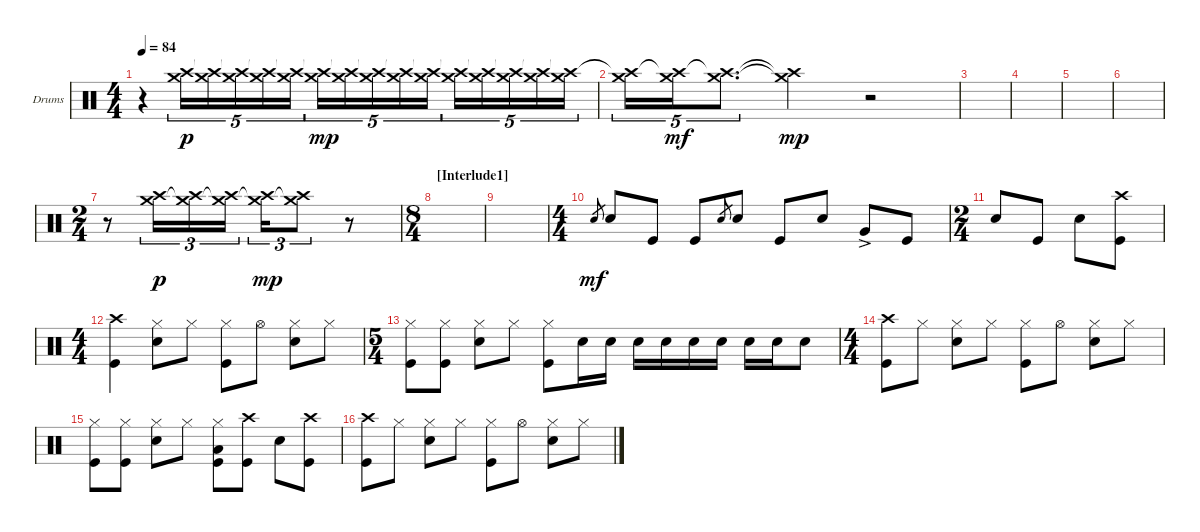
\defaultSystemsLayout 4
\bracketExtendMode groupsimilarinstruments
\firstSystemTrackNameOrientation horizontal
\otherSystemsTrackNameOrientation horizontal
\track ("Drumkit" "Drums") {instrument percussion}
\staff {score}
\articulation defaults
\ts (4 4)
\tempo 84
\clef neutral
\ks aminor
r.4{dy mp} ("Crash medium (hit)" "Crash high (hit)").16{tu (5 4) dy p} ("Crash medium (hit)" "Crash high (hit)"{t}).16{tu (5 4)} ("Crash medium (hit)" "Crash high (hit)"{t}).16{tu (5 4)} ("Crash medium (hit)" "Crash high (hit)"{t}).16{tu (5 4)} ("Crash medium (hit)" "Crash high (hit)"{t}).16{tu (5 4)} ("Crash medium (hit)" "Crash high (hit)"{t}).16{tu (5 4) dy mp} ("Crash medium (hit)" "Crash high (hit)"{t}).16{tu (5 4)} ("Crash medium (hit)" "Crash high (hit)"{t}).16{tu (5 4)} ("Crash medium (hit)" "Crash high (hit)"{t}).16{tu (5 4)} ("Crash medium (hit)" "Crash high (hit)"{t}).16{tu (5 4)} ("Crash medium (hit)" "Crash high (hit)"{t}).16{tu (5 4)} ("Crash medium (hit)" "Crash high (hit)"{t}).16{tu (5 4)} ("Crash medium (hit)" "Crash high (hit)"{t}).16{tu (5 4)} ("Crash medium (hit)" "Crash high (hit)"{t}).16{tu (5 4)} ("Crash medium (hit)" "Crash high (hit)"{t}).16{tu (5 4)} |
("Crash medium (hit)" "Crash high (hit)"{t}).16{tu (5 4)} ("Crash medium (hit)" "Crash high (hit)"{t}).16{tu (5 4) dy mf} ("Crash medium (hit)" "Crash high (hit)"{t}).8{d tu (5 4)} ("Crash medium (hit)"{t} "Crash high (hit)"{t}).4{dy mp} r.2 |
|
|
|
|
\ts (2 4)
r.8 ("Crash high (hit)" "Crash medium (hit)").16{tu (3 2) dy p} ("Crash high (hit)" "Crash medium (hit)"{t}).16{tu (3 2)} ("Crash high (hit)" "Crash medium (hit)"{t}).16{tu (3 2)} ("Crash high (hit)" "Crash medium (hit)"{t}).16{tu (3 2) dy mp} ("Crash high (hit)" "Crash medium (hit)"{t}).8{tu (3 2)} r.8 |
\ts (8 4)
\section ("" "[Interlude1]")
|
|
\ts (4 4)
"Snare (hit) 2".8{gr dy mf} "Snare (hit) 2".8 "Kick (hit)".8 "Kick (hit)".8 "Snare (hit) 2".8{gr} "Snare (hit) 2".8 "Kick (hit)".8 "Snare (hit) 2".8 "Very Low Tom (hit)"{ac}.8 "Kick (hit)".8 |
\ts (2 4)
"Snare (hit) 2".8 "Kick (hit)".8 "Snare (hit) 2".8 ("Kick (hit)" "Crash high (hit)").8 |
\ts (4 4)
("Kick (hit)" "Crash high (hit)").4 ("Hi-Hat (closed)" "Snare (hit) 2").8 "Hi-Hat (closed)".8 ("Hi-Hat (closed)" "Kick (hit)").8 "Hi-Hat (open)".8 ("Hi-Hat (closed)" "Snare (hit) 2").8 "Hi-Hat (closed)".8 |
\ts (5 4)
("Hi-Hat (closed)" "Kick (hit)").8 ("Hi-Hat (closed)" "Kick (hit)").8 ("Hi-Hat (closed)" "Snare (hit) 2").8 "Hi-Hat (closed)".8 ("Hi-Hat (closed)" "Kick (hit)").8 "Snare (hit) 2".16 "Snare (hit) 2".16 "Snare (hit) 2".16 "Snare (hit) 2".16 "Snare (hit) 2".16 "Snare (hit) 2".16 "Snare (hit) 2".16 "Snare (hit) 2".16 "Snare (hit) 2".8 |
\ts (4 4)
("Kick (hit)" "Crash high (hit)").8 "Hi-Hat (closed)".8 ("Hi-Hat (closed)" "Snare (hit) 2").8 "Hi-Hat (closed)".8 ("Hi-Hat (closed)" "Kick (hit)").8 "Hi-Hat (open)".8 ("Hi-Hat (closed)" "Snare (hit) 2").8 "Hi-Hat (closed)".8 |
("Hi-Hat (closed)" "Kick (hit)").8 ("Hi-Hat (closed)" "Kick (hit)").8 ("Hi-Hat (closed)" "Snare (hit) 2").8 "Hi-Hat (closed)".8 ("Hi-Hat (closed)" "Kick (hit)" "Low Tom (hit)").8 ("Crash high (hit)" "Kick (hit)").8 "Snare (hit) 2".8 ("Crash high (hit)" "Kick (hit)").8 |
("Kick (hit)" "Crash high (hit)").8 "Hi-Hat (closed)".8 ("Hi-Hat (closed)" "Snare (hit) 2").8 "Hi-Hat (closed)".8 ("Hi-Hat (closed)" "Kick (hit)").8 "Hi-Hat (open)".8 ("Hi-Hat (closed)" "Snare (hit) 2").8 "Hi-Hat (closed)".8
